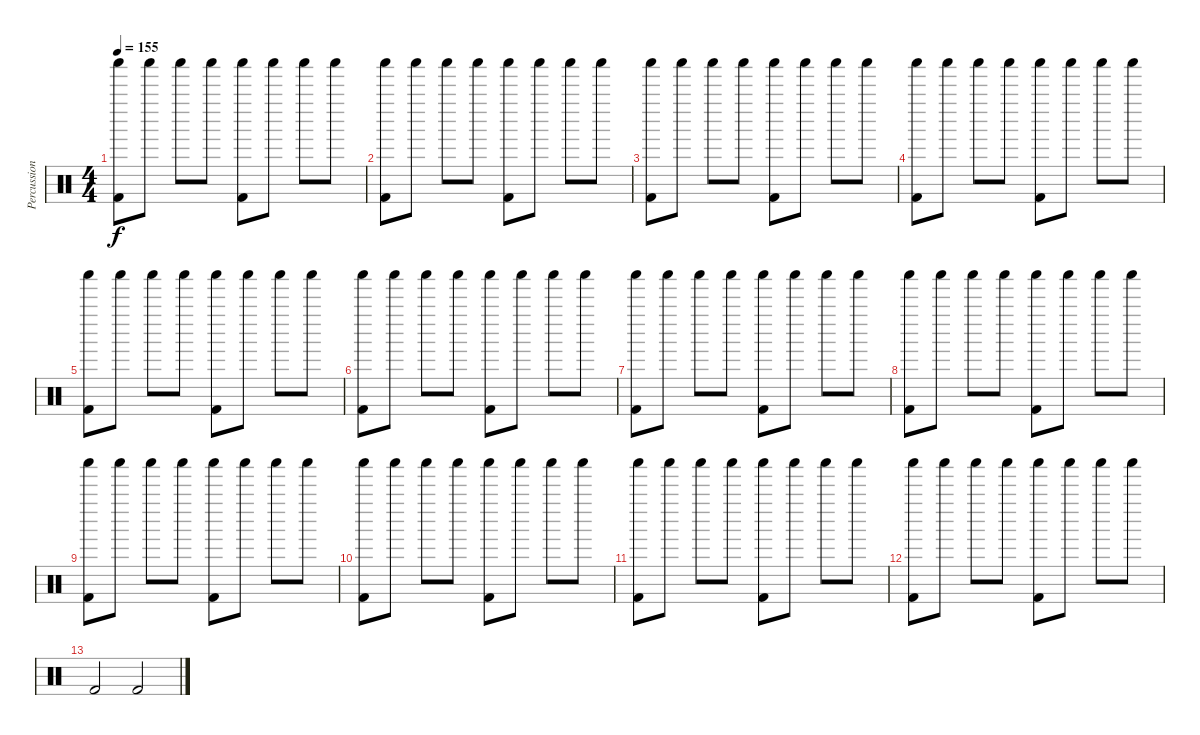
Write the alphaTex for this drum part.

\track ("Percussion" "Percussion") {instrument percussion}
\staff {score}
\articulation defaults
\ts (4 4)
\tempo 155
\clef neutral
\ks c
("Kick (hit) 2" "Shaker (hit)").8{dy f} "Shaker (hit)".8 "Shaker (hit)".8 "Shaker (hit)".8 ("Kick (hit) 2" "Shaker (hit)").8 "Shaker (hit)".8 "Shaker (hit)".8 "Shaker (hit)".8 |
("Kick (hit) 2" "Shaker (hit)").8 "Shaker (hit)".8 "Shaker (hit)".8 "Shaker (hit)".8 ("Kick (hit) 2" "Shaker (hit)").8 "Shaker (hit)".8 "Shaker (hit)".8 "Shaker (hit)".8 |
("Kick (hit) 2" "Shaker (hit)").8 "Shaker (hit)".8 "Shaker (hit)".8 "Shaker (hit)".8 ("Kick (hit) 2" "Shaker (hit)").8 "Shaker (hit)".8 "Shaker (hit)".8 "Shaker (hit)".8 |
("Kick (hit) 2" "Shaker (hit)").8 "Shaker (hit)".8 "Shaker (hit)".8 "Shaker (hit)".8 ("Kick (hit) 2" "Shaker (hit)").8 "Shaker (hit)".8 "Shaker (hit)".8 "Shaker (hit)".8 |
("Kick (hit) 2" "Shaker (hit)").8 "Shaker (hit)".8 "Shaker (hit)".8 "Shaker (hit)".8 ("Kick (hit) 2" "Shaker (hit)").8 "Shaker (hit)".8 "Shaker (hit)".8 "Shaker (hit)".8 |
("Kick (hit) 2" "Shaker (hit)").8 "Shaker (hit)".8 "Shaker (hit)".8 "Shaker (hit)".8 ("Kick (hit) 2" "Shaker (hit)").8 "Shaker (hit)".8 "Shaker (hit)".8 "Shaker (hit)".8 |
("Kick (hit) 2" "Shaker (hit)").8 "Shaker (hit)".8 "Shaker (hit)".8 "Shaker (hit)".8 ("Kick (hit) 2" "Shaker (hit)").8 "Shaker (hit)".8 "Shaker (hit)".8 "Shaker (hit)".8 |
("Kick (hit) 2" "Shaker (hit)").8 "Shaker (hit)".8 "Shaker (hit)".8 "Shaker (hit)".8 ("Kick (hit) 2" "Shaker (hit)").8 "Shaker (hit)".8 "Shaker (hit)".8 "Shaker (hit)".8 |
("Kick (hit) 2" "Shaker (hit)").8 "Shaker (hit)".8 "Shaker (hit)".8 "Shaker (hit)".8 ("Kick (hit) 2" "Shaker (hit)").8 "Shaker (hit)".8 "Shaker (hit)".8 "Shaker (hit)".8 |
("Kick (hit) 2" "Shaker (hit)").8 "Shaker (hit)".8 "Shaker (hit)".8 "Shaker (hit)".8 ("Kick (hit) 2" "Shaker (hit)").8 "Shaker (hit)".8 "Shaker (hit)".8 "Shaker (hit)".8 |
("Kick (hit) 2" "Shaker (hit)").8 "Shaker (hit)".8 "Shaker (hit)".8 "Shaker (hit)".8 ("Kick (hit) 2" "Shaker (hit)").8 "Shaker (hit)".8 "Shaker (hit)".8 "Shaker (hit)".8 |
("Kick (hit) 2" "Shaker (hit)").8 "Shaker (hit)".8 "Shaker (hit)".8 "Shaker (hit)".8 ("Kick (hit) 2" "Shaker (hit)").8 "Shaker (hit)".8 "Shaker (hit)".8 "Shaker (hit)".8 |
"Kick (hit) 2".2 "Kick (hit) 2".2
